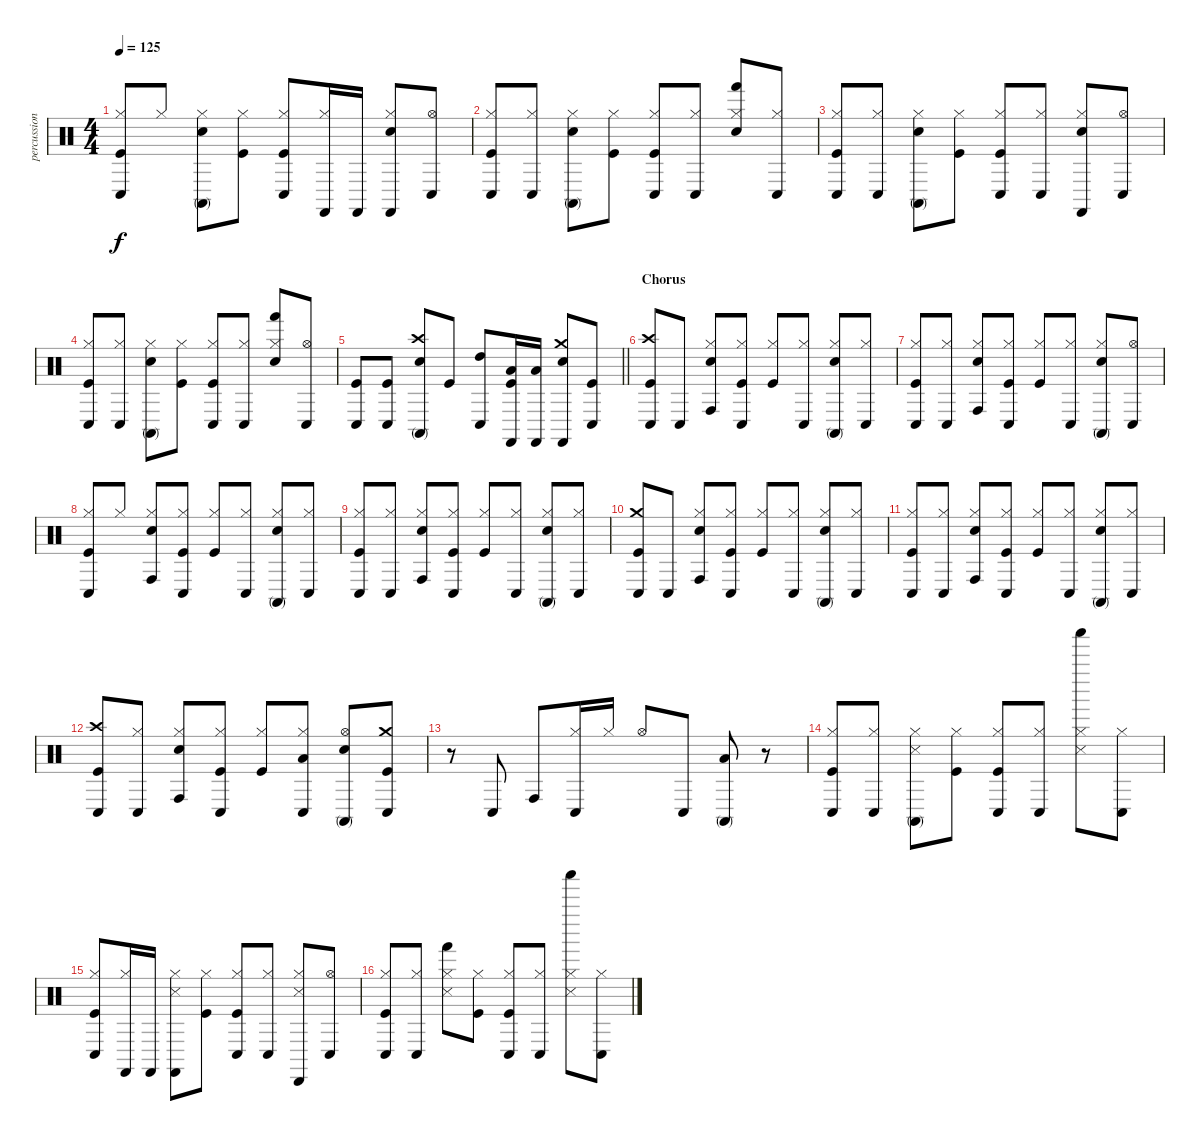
\track ("percussion" "percussion") {instrument percussion}
\staff {score}
\articulation defaults
\ts (4 4)
\tempo 125
\clef neutral
\ks c
("Conga low (hit)" "Hi-Hat (closed)" "Kick (hit)").8{dy f} "Hi-Hat (closed)".8 ("Conga high (mute)" "Electric Snare (hit)" "Hi-Hat (closed)").8 ("Hi-Hat (closed)" "Kick (hit)").8 ("Conga low (hit)" "Hi-Hat (closed)" "Kick (hit)").8 ("Castanets (hit)" "Hi-Hat (closed)").16 "Castanets (hit)".16 ("Castanets (hit)" "Electric Snare (hit)" "Hi-Hat (closed)").8 ("Conga low (hit)" "Hi-Hat (open)").8 |
("Conga low (hit)" "Hi-Hat (closed)" "Kick (hit)").8 ("Conga low (hit)" "Hi-Hat (closed)").8 ("Conga high (mute)" "Electric Snare (hit)" "Hi-Hat (closed)").8 ("Hi-Hat (closed)" "Kick (hit)").8 ("Conga low (hit)" "Hi-Hat (closed)" "Kick (hit)").8 ("Conga low (hit)" "Hi-Hat (closed)").8 ("Hand (hit)" "Electric Snare (hit)" "Hi-Hat (closed)").8 ("Conga low (hit)" "Hi-Hat (closed)").8 |
("Conga low (hit)" "Hi-Hat (closed)" "Kick (hit)").8 ("Conga low (hit)" "Hi-Hat (closed)").8 ("Conga high (mute)" "Electric Snare (hit)" "Hi-Hat (closed)").8 ("Hi-Hat (closed)" "Kick (hit)").8 ("Conga low (hit)" "Hi-Hat (closed)" "Kick (hit)").8 ("Conga low (hit)" "Hi-Hat (closed)").8 ("Castanets (hit)" "Electric Snare (hit)" "Hi-Hat (closed)").8 ("Conga low (hit)" "Hi-Hat (open)").8 |
("Conga low (hit)" "Hi-Hat (closed)" "Kick (hit)").8 ("Conga low (hit)" "Hi-Hat (closed)").8 ("Conga high (mute)" "Electric Snare (hit)" "Hi-Hat (closed)").8 ("Hi-Hat (closed)" "Kick (hit)").8 ("Conga low (hit)" "Hi-Hat (closed)" "Kick (hit)").8 ("Conga low (hit)" "Hi-Hat (closed)").8 ("Hand (hit)" "Electric Snare (hit)" "Hi-Hat (closed)").8 ("Conga low (hit)" "Hi-Hat (open)").8 |
\barLineRight lightlight
("Conga low (hit)" "Kick (hit)").8 ("Conga low (hit)" "Kick (hit)").8 ("Crash high (hit)" "Conga high (mute)" "Electric Snare (hit)").8 "Kick (hit)".8 ("Conga low (hit)" "High Tom (hit)").8 ("Castanets (hit)" "Low Tom (hit)" "Kick (hit)").16 ("Castanets (hit)" "Low Floor Tom (hit)").16 ("Crash medium (hit)" "Castanets (hit)" "Electric Snare (hit)").8 ("Conga low (hit)" "Kick (hit)").8 |
\section ("" "Chorus")
("Crash high (hit)" "Conga low (hit)" "Kick (hit)").8 "Conga low (hit)".8 ("Conga high (hit)" "Electric Snare (hit)" "Hi-Hat (closed)").8 ("Conga low (hit)" "Hi-Hat (closed)" "Kick (hit)").8 ("Hi-Hat (closed)" "Kick (hit)").8 ("Conga low (hit)" "Hi-Hat (closed)").8 ("Conga high (mute)" "Electric Snare (hit)" "Hi-Hat (closed)").8 ("Conga low (hit)" "Hi-Hat (closed)").8 |
("Conga low (hit)" "Hi-Hat (closed)" "Kick (hit)").8 ("Conga low (hit)" "Hi-Hat (closed)").8 ("Conga high (hit)" "Electric Snare (hit)" "Hi-Hat (closed)").8 ("Conga low (hit)" "Hi-Hat (closed)" "Kick (hit)").8 ("Hi-Hat (closed)" "Kick (hit)").8 ("Conga low (hit)" "Hi-Hat (closed)").8 ("Conga high (mute)" "Electric Snare (hit)" "Hi-Hat (closed)").8 ("Conga low (hit)" "Hi-Hat (open)").8 |
("Conga low (hit)" "Hi-Hat (closed)" "Kick (hit)").8 "Hi-Hat (closed)".8 ("Conga high (hit)" "Electric Snare (hit)" "Hi-Hat (closed)").8 ("Conga low (hit)" "Hi-Hat (closed)" "Kick (hit)").8 ("Hi-Hat (closed)" "Kick (hit)").8 ("Conga low (hit)" "Hi-Hat (closed)").8 ("Conga high (mute)" "Electric Snare (hit)" "Hi-Hat (closed)").8 ("Conga low (hit)" "Hi-Hat (closed)").8 |
("Conga low (hit)" "Hi-Hat (closed)" "Kick (hit)").8 ("Conga low (hit)" "Hi-Hat (closed)").8 ("Conga high (hit)" "Electric Snare (hit)" "Hi-Hat (closed)").8 ("Conga low (hit)" "Hi-Hat (closed)" "Kick (hit)").8 ("Hi-Hat (closed)" "Kick (hit)").8 ("Conga low (hit)" "Hi-Hat (closed)").8 ("Conga high (mute)" "Electric Snare (hit)" "Hi-Hat (closed)").8 ("Conga low (hit)" "Hi-Hat (closed)").8 |
("Crash medium (hit)" "Conga low (hit)" "Kick (hit)").8 "Conga low (hit)".8 ("Conga high (hit)" "Electric Snare (hit)" "Hi-Hat (closed)").8 ("Conga low (hit)" "Hi-Hat (closed)" "Kick (hit)").8 ("Hi-Hat (closed)" "Kick (hit)").8 ("Conga low (hit)" "Hi-Hat (closed)").8 ("Conga high (mute)" "Electric Snare (hit)" "Hi-Hat (closed)").8 ("Conga low (hit)" "Hi-Hat (closed)").8 |
("Conga low (hit)" "Hi-Hat (closed)" "Kick (hit)").8 ("Conga low (hit)" "Hi-Hat (closed)").8 ("Conga high (hit)" "Electric Snare (hit)" "Hi-Hat (closed)").8 ("Conga low (hit)" "Hi-Hat (closed)" "Kick (hit)").8 ("Hi-Hat (closed)" "Kick (hit)").8 ("Conga low (hit)" "Hi-Hat (closed)").8 ("Conga high (mute)" "Electric Snare (hit)" "Hi-Hat (closed)").8 ("Conga low (hit)" "Hi-Hat (closed)").8 |
("Crash high (hit)" "Conga low (hit)" "Kick (hit)").8 ("Conga low (hit)" "Hi-Hat (closed)").8 ("Conga high (hit)" "Electric Snare (hit)" "Hi-Hat (closed)").8 ("Conga low (hit)" "Hi-Hat (closed)" "Kick (hit)").8 ("Hi-Hat (closed)" "Kick (hit)").8 ("Conga low (hit)" "Low Tom (hit)" "Hi-Hat (closed)").8 ("Conga high (mute)" "Electric Snare (hit)" "Hi-Hat (open)").8 ("Crash medium (hit)" "Conga low (hit)" "Kick (hit)").8 |
r.8 "Conga low (hit)".8 "Conga high (hit)".8 ("Conga low (hit)" "Hi-Hat (closed)").16 "Hi-Hat (closed)".16 "Hi-Hat (open)".8 "Conga low (hit)".8 ("Conga high (mute)" "Low Floor Tom (hit)").8 r.8 |
("Conga low (hit)" "Hi-Hat (closed)" "Kick (hit)").8 ("Conga low (hit)" "Hi-Hat (closed)").8 ("Conga high (mute)" "Snare (side stick) 3" "Hi-Hat (closed)").8 ("Hi-Hat (closed)" "Kick (hit)").8 ("Conga low (hit)" "Hi-Hat (closed)" "Kick (hit)").8 ("Conga low (hit)" "Hi-Hat (closed)").8 ("Shaker (hit)" "Snare (side stick) 3" "Hi-Hat (closed)").8 ("Conga low (hit)" "Hi-Hat (closed)").8 |
("Conga low (hit)" "Hi-Hat (closed)" "Kick (hit)").8 ("Castanets (hit)" "Hi-Hat (closed)").16 "Castanets (hit)".16 ("Castanets (hit)" "Snare (side stick) 3" "Hi-Hat (closed)").8 ("Hi-Hat (closed)" "Kick (hit)").8 ("Conga low (hit)" "Hi-Hat (closed)" "Kick (hit)").8 ("Conga low (hit)" "Hi-Hat (closed)").8 ("Cabasa (hit)" "Snare (side stick) 3" "Hi-Hat (closed)").8 ("Conga low (hit)" "Hi-Hat (open)").8 |
("Conga low (hit)" "Hi-Hat (closed)" "Kick (hit)").8 ("Conga low (hit)" "Hi-Hat (closed)").8 ("Hand (hit)" "Snare (side stick) 3" "Hi-Hat (closed)").8 ("Hi-Hat (closed)" "Kick (hit)").8 ("Conga low (hit)" "Hi-Hat (closed)" "Kick (hit)").8 ("Conga low (hit)" "Hi-Hat (closed)").8 ("Shaker (hit)" "Snare (side stick) 3" "Hi-Hat (closed)").8 ("Conga low (hit)" "Hi-Hat (closed)").8
